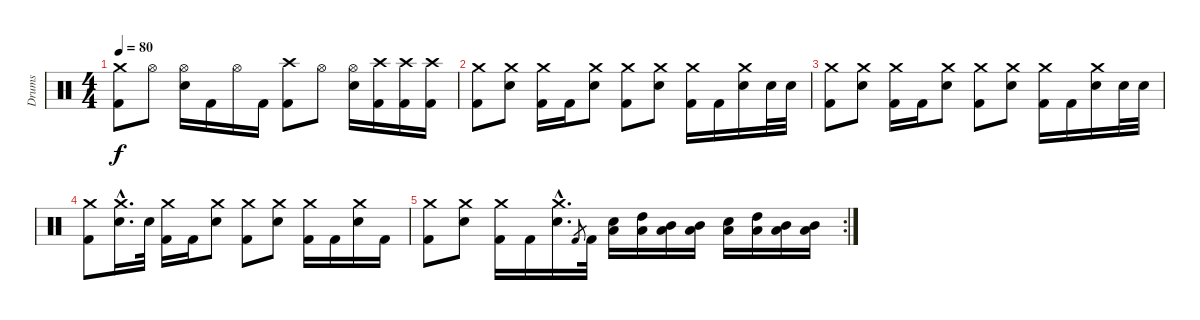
\track ("Drums" "Drums") {instrument percussion}
\staff {score}
\articulation defaults
\ts (4 4)
\tempo 80
\clef neutral
\ks c
("Crash medium (hit)" "Kick (hit) 2").8{dy f} "Hi-Hat (open)".8 ("Hi-Hat (open)" "Electric Snare (hit)").16 "Kick (hit) 2".16 "Hi-Hat (open)".16 "Kick (hit) 2".16 ("Crash high (hit)" "Kick (hit) 2").8 "Hi-Hat (open)".8 ("Hi-Hat (open)" "Electric Snare (hit)").16 ("Crash high (hit)" "Kick (hit) 2").16 ("Crash high (hit)" "Kick (hit) 2").16 ("Crash high (hit)" "Kick (hit) 2").16 |
("Crash medium (hit)" "Kick (hit) 2").8 ("Crash medium (hit)" "Electric Snare (hit)").8 ("Crash medium (hit)" "Kick (hit) 2").16 "Kick (hit) 2".16 ("Crash medium (hit)" "Electric Snare (hit)").8 ("Crash medium (hit)" "Kick (hit) 2").8 ("Crash medium (hit)" "Electric Snare (hit)").8 ("Crash medium (hit)" "Kick (hit) 2").16 "Kick (hit) 2".16 ("Crash medium (hit)" "Electric Snare (hit)").16 "Electric Snare (hit)".32 "Electric Snare (hit)".32 |
("Crash medium (hit)" "Kick (hit) 2").8 ("Crash medium (hit)" "Electric Snare (hit)").8 ("Crash medium (hit)" "Kick (hit) 2").16 "Kick (hit) 2".16 ("Crash medium (hit)" "Electric Snare (hit)").8 ("Crash medium (hit)" "Kick (hit) 2").8 ("Crash medium (hit)" "Electric Snare (hit)").8 ("Crash medium (hit)" "Kick (hit) 2").16 "Kick (hit) 2".16 ("Crash medium (hit)" "Electric Snare (hit)").16 "Electric Snare (hit)".32 "Electric Snare (hit)".32 |
("Crash medium (hit)" "Kick (hit) 2").8 ("Crash medium (hit)"{hac} "Electric Snare (hit)"{hac}).16{d} "Electric Snare (hit)".32 ("Crash medium (hit)" "Kick (hit) 2").16 "Kick (hit) 2".16 ("Crash medium (hit)" "Electric Snare (hit)").8 ("Crash medium (hit)" "Kick (hit) 2").8 ("Crash medium (hit)" "Electric Snare (hit)").8 ("Crash medium (hit)" "Kick (hit) 2").16 "Kick (hit) 2".16 ("Crash medium (hit)" "Electric Snare (hit)").16 "Kick (hit) 2".16 |
\rc 2
("Crash medium (hit)" "Kick (hit) 2").8 ("Crash medium (hit)" "Electric Snare (hit)").8 ("Crash medium (hit)" "Kick (hit) 2").16 "Kick (hit) 2".16 ("Crash medium (hit)"{hac} "Electric Snare (hit)"{hac}).16{d} "Kick (hit) 2".8{gr} "Kick (hit) 2".32 ("Electric Snare (hit)" "Low Tom (hit)").16 ("High Tom (hit)" "Low Tom (hit)").16 ("Mid Tom (hit)" "Low Floor Tom (hit)").16 ("Mid Tom (hit)" "Low Floor Tom (hit)").16 ("Electric Snare (hit)" "Low Tom (hit)").16 ("High Tom (hit)" "Low Tom (hit)").16 ("Mid Tom (hit)" "Low Floor Tom (hit)").16 ("Mid Tom (hit)" "Low Floor Tom (hit)").16
